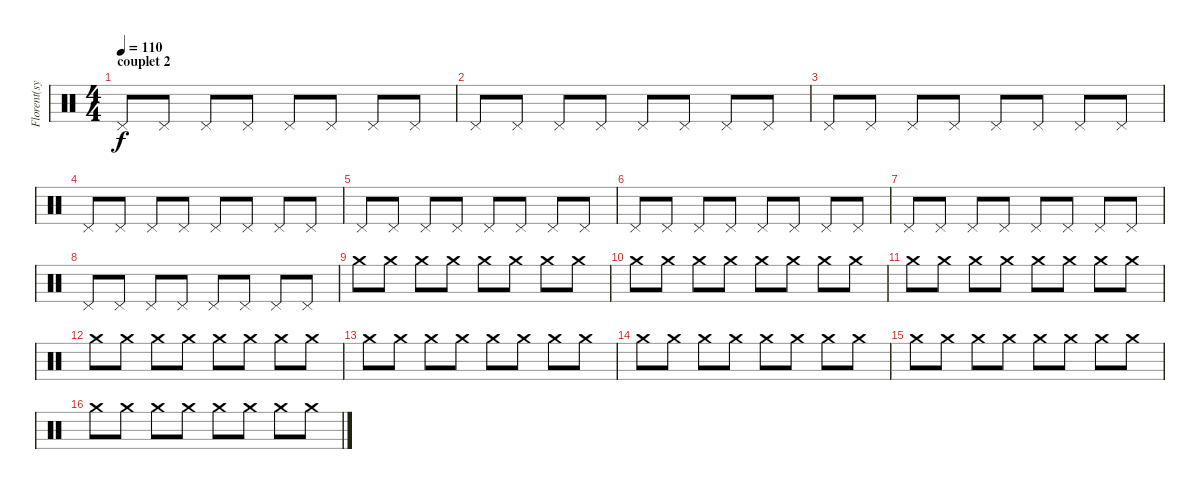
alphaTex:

\track ("Florent(symbales)" "Florent(sy") {instrument percussion}
\staff {score}
\articulation defaults
\ts (4 4)
\section ("" "couplet 2")
\tempo 110
\clef neutral
\ks c "Pedal Hi-Hat (hit)".8{dy f} "Pedal Hi-Hat (hit)".8 "Pedal Hi-Hat (hit)".8 "Pedal Hi-Hat (hit)".8 "Pedal Hi-Hat (hit)".8 "Pedal Hi-Hat (hit)".8 "Pedal Hi-Hat (hit)".8 "Pedal Hi-Hat (hit)".8
|
"Pedal Hi-Hat (hit)".8 "Pedal Hi-Hat (hit)".8 "Pedal Hi-Hat (hit)".8 "Pedal Hi-Hat (hit)".8 "Pedal Hi-Hat (hit)".8 "Pedal Hi-Hat (hit)".8 "Pedal Hi-Hat (hit)".8 "Pedal Hi-Hat (hit)".8 |
"Pedal Hi-Hat (hit)".8 "Pedal Hi-Hat (hit)".8 "Pedal Hi-Hat (hit)".8 "Pedal Hi-Hat (hit)".8 "Pedal Hi-Hat (hit)".8 "Pedal Hi-Hat (hit)".8 "Pedal Hi-Hat (hit)".8 "Pedal Hi-Hat (hit)".8 |
"Pedal Hi-Hat (hit)".8 "Pedal Hi-Hat (hit)".8 "Pedal Hi-Hat (hit)".8 "Pedal Hi-Hat (hit)".8 "Pedal Hi-Hat (hit)".8 "Pedal Hi-Hat (hit)".8 "Pedal Hi-Hat (hit)".8 "Pedal Hi-Hat (hit)".8 |
"Pedal Hi-Hat (hit)".8 "Pedal Hi-Hat (hit)".8 "Pedal Hi-Hat (hit)".8 "Pedal Hi-Hat (hit)".8 "Pedal Hi-Hat (hit)".8 "Pedal Hi-Hat (hit)".8 "Pedal Hi-Hat (hit)".8 "Pedal Hi-Hat (hit)".8 |
"Pedal Hi-Hat (hit)".8 "Pedal Hi-Hat (hit)".8 "Pedal Hi-Hat (hit)".8 "Pedal Hi-Hat (hit)".8 "Pedal Hi-Hat (hit)".8 "Pedal Hi-Hat (hit)".8 "Pedal Hi-Hat (hit)".8 "Pedal Hi-Hat (hit)".8 |
"Pedal Hi-Hat (hit)".8 "Pedal Hi-Hat (hit)".8 "Pedal Hi-Hat (hit)".8 "Pedal Hi-Hat (hit)".8 "Pedal Hi-Hat (hit)".8 "Pedal Hi-Hat (hit)".8 "Pedal Hi-Hat (hit)".8 "Pedal Hi-Hat (hit)".8 |
"Pedal Hi-Hat (hit)".8 "Pedal Hi-Hat (hit)".8 "Pedal Hi-Hat (hit)".8 "Pedal Hi-Hat (hit)".8 "Pedal Hi-Hat (hit)".8 "Pedal Hi-Hat (hit)".8 "Pedal Hi-Hat (hit)".8 "Pedal Hi-Hat (hit)".8 |
"Crash medium (hit)".8 "Crash medium (hit)".8 "Crash medium (hit)".8 "Crash medium (hit)".8 "Crash medium (hit)".8 "Crash medium (hit)".8 "Crash medium (hit)".8 "Crash medium (hit)".8 |
"Crash medium (hit)".8 "Crash medium (hit)".8 "Crash medium (hit)".8 "Crash medium (hit)".8 "Crash medium (hit)".8 "Crash medium (hit)".8 "Crash medium (hit)".8 "Crash medium (hit)".8 |
"Crash medium (hit)".8 "Crash medium (hit)".8 "Crash medium (hit)".8 "Crash medium (hit)".8 "Crash medium (hit)".8 "Crash medium (hit)".8 "Crash medium (hit)".8 "Crash medium (hit)".8 |
"Crash medium (hit)".8 "Crash medium (hit)".8 "Crash medium (hit)".8 "Crash medium (hit)".8 "Crash medium (hit)".8 "Crash medium (hit)".8 "Crash medium (hit)".8 "Crash medium (hit)".8 |
"Crash medium (hit)".8 "Crash medium (hit)".8 "Crash medium (hit)".8 "Crash medium (hit)".8 "Crash medium (hit)".8 "Crash medium (hit)".8 "Crash medium (hit)".8 "Crash medium (hit)".8 |
"Crash medium (hit)".8 "Crash medium (hit)".8 "Crash medium (hit)".8 "Crash medium (hit)".8 "Crash medium (hit)".8 "Crash medium (hit)".8 "Crash medium (hit)".8 "Crash medium (hit)".8 |
"Crash medium (hit)".8 "Crash medium (hit)".8 "Crash medium (hit)".8 "Crash medium (hit)".8 "Crash medium (hit)".8 "Crash medium (hit)".8 "Crash medium (hit)".8 "Crash medium (hit)".8 |
"Crash medium (hit)".8 "Crash medium (hit)".8 "Crash medium (hit)".8 "Crash medium (hit)".8 "Crash medium (hit)".8 "Crash medium (hit)".8 "Crash medium (hit)".8 "Crash medium (hit)".8
